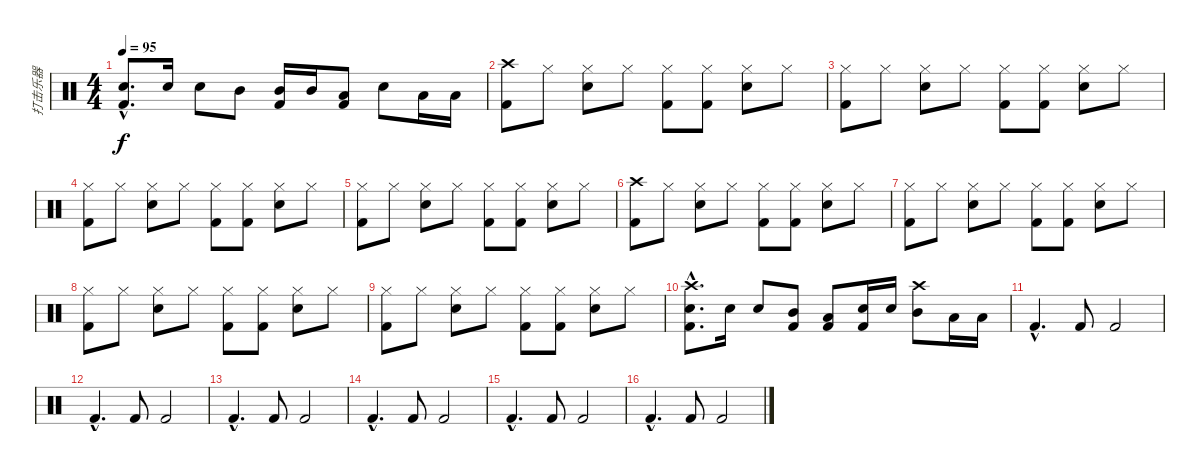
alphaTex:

\track ("打击乐器" "打击乐器") {instrument percussion}
\staff {score}
\articulation defaults
\ts (4 4)
\tempo 95
\clef neutral
\ks c
("Electric Snare (hit)"{hac} "Kick (hit) 2"{hac}).8{d dy f} "Electric Snare (hit)".16 "Electric Snare (hit)".8 "Mid Tom (hit)".8 ("Mid Tom (hit)" "Kick (hit) 2").16 "Mid Tom (hit)".16 ("Low Tom (hit)" "Kick (hit) 2").8 "Electric Snare (hit)".8 "Low Tom (hit)".16 "Low Tom (hit)".16 |
("Crash high (hit)" "Kick (hit) 2").8 "Hi-Hat (closed)".8 ("Hi-Hat (closed)" "Electric Snare (hit)").8 "Hi-Hat (closed)".8 ("Hi-Hat (closed)" "Kick (hit) 2").8 ("Hi-Hat (closed)" "Kick (hit) 2").8 ("Hi-Hat (closed)" "Electric Snare (hit)").8 "Hi-Hat (closed)".8 |
("Hi-Hat (closed)" "Kick (hit) 2").8 "Hi-Hat (closed)".8 ("Hi-Hat (closed)" "Electric Snare (hit)").8 "Hi-Hat (closed)".8 ("Hi-Hat (closed)" "Kick (hit) 2").8 ("Hi-Hat (closed)" "Kick (hit) 2").8 ("Hi-Hat (closed)" "Electric Snare (hit)").8 "Hi-Hat (closed)".8 |
("Hi-Hat (closed)" "Kick (hit) 2").8 "Hi-Hat (closed)".8 ("Hi-Hat (closed)" "Electric Snare (hit)").8 "Hi-Hat (closed)".8 ("Hi-Hat (closed)" "Kick (hit) 2").8 ("Hi-Hat (closed)" "Kick (hit) 2").8 ("Hi-Hat (closed)" "Electric Snare (hit)").8 "Hi-Hat (closed)".8 |
("Hi-Hat (closed)" "Kick (hit) 2").8 "Hi-Hat (closed)".8 ("Hi-Hat (closed)" "Electric Snare (hit)").8 "Hi-Hat (closed)".8 ("Hi-Hat (closed)" "Kick (hit) 2").8 ("Hi-Hat (closed)" "Kick (hit) 2").8 ("Hi-Hat (closed)" "Electric Snare (hit)").8 "Hi-Hat (closed)".8 |
("Crash high (hit)" "Kick (hit) 2").8 "Hi-Hat (closed)".8 ("Hi-Hat (closed)" "Electric Snare (hit)").8 "Hi-Hat (closed)".8 ("Hi-Hat (closed)" "Kick (hit) 2").8 ("Hi-Hat (closed)" "Kick (hit) 2").8 ("Hi-Hat (closed)" "Electric Snare (hit)").8 "Hi-Hat (closed)".8 |
("Hi-Hat (closed)" "Kick (hit) 2").8 "Hi-Hat (closed)".8 ("Hi-Hat (closed)" "Electric Snare (hit)").8 "Hi-Hat (closed)".8 ("Hi-Hat (closed)" "Kick (hit) 2").8 ("Hi-Hat (closed)" "Kick (hit) 2").8 ("Hi-Hat (closed)" "Electric Snare (hit)").8 "Hi-Hat (closed)".8 |
("Hi-Hat (closed)" "Kick (hit) 2").8 "Hi-Hat (closed)".8 ("Hi-Hat (closed)" "Electric Snare (hit)").8 "Hi-Hat (closed)".8 ("Hi-Hat (closed)" "Kick (hit) 2").8 ("Hi-Hat (closed)" "Kick (hit) 2").8 ("Hi-Hat (closed)" "Electric Snare (hit)").8 "Hi-Hat (closed)".8 |
("Hi-Hat (closed)" "Kick (hit) 2").8 "Hi-Hat (closed)".8 ("Hi-Hat (closed)" "Electric Snare (hit)").8 "Hi-Hat (closed)".8 ("Hi-Hat (closed)" "Kick (hit) 2").8 ("Hi-Hat (closed)" "Kick (hit) 2").8 ("Hi-Hat (closed)" "Electric Snare (hit)").8 "Hi-Hat (closed)".8 |
("Crash high (hit)"{hac} "Electric Snare (hit)"{hac} "Kick (hit) 2"{hac}).8{d} "Electric Snare (hit)".16 "Electric Snare (hit)".8 ("Mid Tom (hit)" "Kick (hit) 2").8 ("Low Tom (hit)" "Kick (hit) 2").8 ("Electric Snare (hit)" "Kick (hit) 2").16 "Electric Snare (hit)".16 ("Crash high (hit)" "Mid Tom (hit)").8 "Low Tom (hit)".16 "Low Tom (hit)".16 |
"Kick (hit) 2"{hac}.4{d} "Kick (hit) 2".8 "Kick (hit) 2".2 |
"Kick (hit) 2"{hac}.4{d} "Kick (hit) 2".8 "Kick (hit) 2".2 |
"Kick (hit) 2"{hac}.4{d} "Kick (hit) 2".8 "Kick (hit) 2".2 |
"Kick (hit) 2"{hac}.4{d} "Kick (hit) 2".8 "Kick (hit) 2".2 |
"Kick (hit) 2"{hac}.4{d} "Kick (hit) 2".8 "Kick (hit) 2".2 |
"Kick (hit) 2"{hac}.4{d} "Kick (hit) 2".8 "Kick (hit) 2".2
